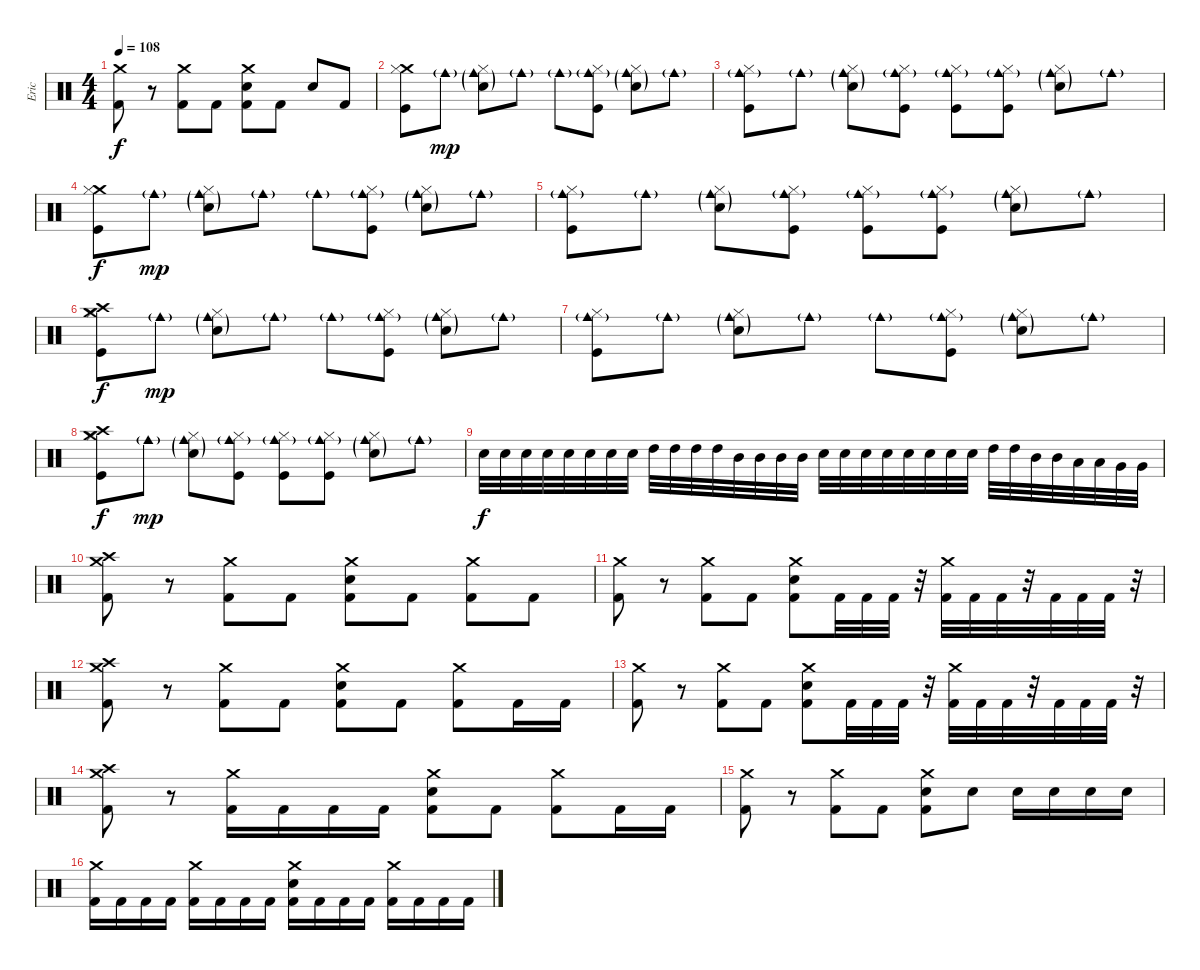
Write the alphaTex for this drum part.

\track ("Eric" "Eric") {instrument percussion}
\staff {score}
\articulation defaults
\ts (4 4)
\tempo 108
\clef neutral
\ks c
("Crash medium (hit)" "Kick (hit) 2").8{dy f} r.8 ("Crash medium (hit)" "Kick (hit) 2").8 "Kick (hit) 2".8 ("Crash medium (hit)" "Electric Snare (hit)" "Kick (hit) 2").8 "Kick (hit) 2".8 "Electric Snare (hit)".8 "Kick (hit) 2".8 |
("Crash medium (hit)" "Kick (hit)" "Hi-Hat (closed)").8 "Cowbell medium (hit)"{g}.8{dy mp} ("Cowbell medium (hit)"{g} "Hi-Hat (closed)" "Electric Snare (hit)"{g}).8 "Cowbell medium (hit)"{g}.8 "Cowbell medium (hit)"{g}.8 ("Cowbell medium (hit)"{g} "Kick (hit)" "Hi-Hat (closed)").8 ("Cowbell medium (hit)"{g} "Hi-Hat (closed)" "Electric Snare (hit)"{g}).8 "Cowbell medium (hit)"{g}.8 |
("Cowbell medium (hit)"{g} "Kick (hit)" "Hi-Hat (closed)").8 "Cowbell medium (hit)"{g}.8 ("Cowbell medium (hit)"{g} "Hi-Hat (closed)" "Electric Snare (hit)"{g}).8 ("Cowbell medium (hit)"{g} "Kick (hit)" "Hi-Hat (closed)").8 ("Cowbell medium (hit)"{g} "Kick (hit)" "Hi-Hat (closed)").8 ("Cowbell medium (hit)"{g} "Kick (hit)" "Hi-Hat (closed)").8 ("Cowbell medium (hit)"{g} "Hi-Hat (closed)" "Electric Snare (hit)"{g}).8 "Cowbell medium (hit)"{g}.8 |
("Crash medium (hit)" "Kick (hit)" "Hi-Hat (closed)").8{dy f} "Cowbell medium (hit)"{g}.8{dy mp} ("Cowbell medium (hit)"{g} "Hi-Hat (closed)" "Electric Snare (hit)"{g}).8 "Cowbell medium (hit)"{g}.8 "Cowbell medium (hit)"{g}.8 ("Cowbell medium (hit)"{g} "Kick (hit)" "Hi-Hat (closed)").8 ("Cowbell medium (hit)"{g} "Hi-Hat (closed)" "Electric Snare (hit)"{g}).8 "Cowbell medium (hit)"{g}.8 |
("Cowbell medium (hit)"{g} "Kick (hit)" "Hi-Hat (closed)").8 "Cowbell medium (hit)"{g}.8 ("Cowbell medium (hit)"{g} "Hi-Hat (closed)" "Electric Snare (hit)"{g}).8 ("Cowbell medium (hit)"{g} "Kick (hit)" "Hi-Hat (closed)").8 ("Cowbell medium (hit)"{g} "Kick (hit)" "Hi-Hat (closed)").8 ("Cowbell medium (hit)"{g} "Kick (hit)" "Hi-Hat (closed)").8 ("Cowbell medium (hit)"{g} "Hi-Hat (closed)" "Electric Snare (hit)"{g}).8 "Cowbell medium (hit)"{g}.8 |
("Crash medium (hit)" "Crash high (hit)" "Kick (hit)" "Hi-Hat (closed)").8{dy f} "Cowbell medium (hit)"{g}.8{dy mp} ("Cowbell medium (hit)"{g} "Hi-Hat (closed)" "Electric Snare (hit)"{g}).8 "Cowbell medium (hit)"{g}.8 "Cowbell medium (hit)"{g}.8 ("Cowbell medium (hit)"{g} "Kick (hit)" "Hi-Hat (closed)").8 ("Cowbell medium (hit)"{g} "Hi-Hat (closed)" "Electric Snare (hit)"{g}).8 "Cowbell medium (hit)"{g}.8 |
("Cowbell medium (hit)"{g} "Kick (hit)" "Hi-Hat (closed)").8 "Cowbell medium (hit)"{g}.8 ("Cowbell medium (hit)"{g} "Hi-Hat (closed)" "Electric Snare (hit)"{g}).8 "Cowbell medium (hit)"{g}.8 "Cowbell medium (hit)"{g}.8 ("Cowbell medium (hit)"{g} "Kick (hit)" "Hi-Hat (closed)").8 ("Cowbell medium (hit)"{g} "Hi-Hat (closed)" "Electric Snare (hit)"{g}).8 "Cowbell medium (hit)"{g}.8 |
("Crash medium (hit)" "Crash high (hit)" "Kick (hit)" "Hi-Hat (closed)").8{dy f} "Cowbell medium (hit)"{g}.8{dy mp} ("Cowbell medium (hit)"{g} "Hi-Hat (closed)" "Electric Snare (hit)"{g}).8 ("Cowbell medium (hit)"{g} "Kick (hit)" "Hi-Hat (closed)").8 ("Cowbell medium (hit)"{g} "Kick (hit)" "Hi-Hat (closed)").8 ("Cowbell medium (hit)"{g} "Kick (hit)" "Hi-Hat (closed)").8 ("Cowbell medium (hit)"{g} "Hi-Hat (closed)" "Electric Snare (hit)"{g}).8 "Cowbell medium (hit)"{g}.8 |
"Electric Snare (hit)".32{dy f} "Electric Snare (hit)".32 "Electric Snare (hit)".32 "Electric Snare (hit)".32 "Electric Snare (hit)".32 "Electric Snare (hit)".32 "Electric Snare (hit)".32 "Electric Snare (hit)".32 "High Tom (hit)".32 "High Tom (hit)".32 "High Tom (hit)".32 "High Tom (hit)".32 "Mid Tom (hit)".32 "Mid Tom (hit)".32 "Mid Tom (hit)".32 "Mid Tom (hit)".32 "Electric Snare (hit)".32 "Electric Snare (hit)".32 "Electric Snare (hit)".32 "Electric Snare (hit)".32 "Electric Snare (hit)".32 "Electric Snare (hit)".32 "Electric Snare (hit)".32 "Electric Snare (hit)".32 "High Tom (hit)".32 "High Tom (hit)".32 "Mid Tom (hit)".32 "Mid Tom (hit)".32 "Low Tom (hit)".32 "Low Tom (hit)".32 "Very Low Tom (hit)".32 "Very Low Tom (hit)".32 |
("Crash medium (hit)" "Crash high (hit)" "Kick (hit) 2").8 r.8 ("Crash medium (hit)" "Kick (hit) 2").8 "Kick (hit) 2".8 ("Crash medium (hit)" "Electric Snare (hit)" "Kick (hit) 2").8 "Kick (hit) 2".8 ("Crash medium (hit)" "Kick (hit) 2").8 "Kick (hit) 2".8 |
("Crash medium (hit)" "Kick (hit) 2").8 r.8 ("Crash medium (hit)" "Kick (hit) 2").8 "Kick (hit) 2".8 ("Crash medium (hit)" "Electric Snare (hit)" "Kick (hit) 2").8 "Kick (hit) 2".32 "Kick (hit) 2".32 "Kick (hit) 2".32 r.32 ("Crash medium (hit)" "Kick (hit) 2").32 "Kick (hit) 2".32 "Kick (hit) 2".32 r.32 "Kick (hit) 2".32 "Kick (hit) 2".32 "Kick (hit) 2".32 r.32 |
("Crash medium (hit)" "Crash high (hit)" "Kick (hit) 2").8 r.8 ("Crash medium (hit)" "Kick (hit) 2").8 "Kick (hit) 2".8 ("Crash medium (hit)" "Electric Snare (hit)" "Kick (hit) 2").8 "Kick (hit) 2".8 ("Crash medium (hit)" "Kick (hit) 2").8 "Kick (hit) 2".16 "Kick (hit) 2".16 |
("Crash medium (hit)" "Kick (hit) 2").8 r.8 ("Crash medium (hit)" "Kick (hit) 2").8 "Kick (hit) 2".8 ("Crash medium (hit)" "Electric Snare (hit)" "Kick (hit) 2").8 "Kick (hit) 2".32 "Kick (hit) 2".32 "Kick (hit) 2".32 r.32 ("Crash medium (hit)" "Kick (hit) 2").32 "Kick (hit) 2".32 "Kick (hit) 2".32 r.32 "Kick (hit) 2".32 "Kick (hit) 2".32 "Kick (hit) 2".32 r.32 |
("Crash medium (hit)" "Crash high (hit)" "Kick (hit) 2").8 r.8 ("Crash medium (hit)" "Kick (hit) 2").16 "Kick (hit) 2".16 "Kick (hit) 2".16 "Kick (hit) 2".16 ("Crash medium (hit)" "Electric Snare (hit)" "Kick (hit) 2").8 "Kick (hit) 2".8 ("Crash medium (hit)" "Kick (hit) 2").8 "Kick (hit) 2".16 "Kick (hit) 2".16 |
("Crash medium (hit)" "Kick (hit) 2").8 r.8 ("Crash medium (hit)" "Kick (hit) 2").8 "Kick (hit) 2".8 ("Crash medium (hit)" "Electric Snare (hit)" "Kick (hit) 2").8 "Electric Snare (hit)".8 "Electric Snare (hit)".16 "Electric Snare (hit)".16 "Electric Snare (hit)".16 "Electric Snare (hit)".16 |
("Crash medium (hit)" "Kick (hit) 2").16 "Kick (hit) 2".16 "Kick (hit) 2".16 "Kick (hit) 2".16 ("Crash medium (hit)" "Kick (hit) 2").16 "Kick (hit) 2".16 "Kick (hit) 2".16 "Kick (hit) 2".16 ("Crash medium (hit)" "Electric Snare (hit)" "Kick (hit) 2").16 "Kick (hit) 2".16 "Kick (hit) 2".16 "Kick (hit) 2".16 ("Crash medium (hit)" "Kick (hit) 2").16 "Kick (hit) 2".16 "Kick (hit) 2".16 "Kick (hit) 2".16
